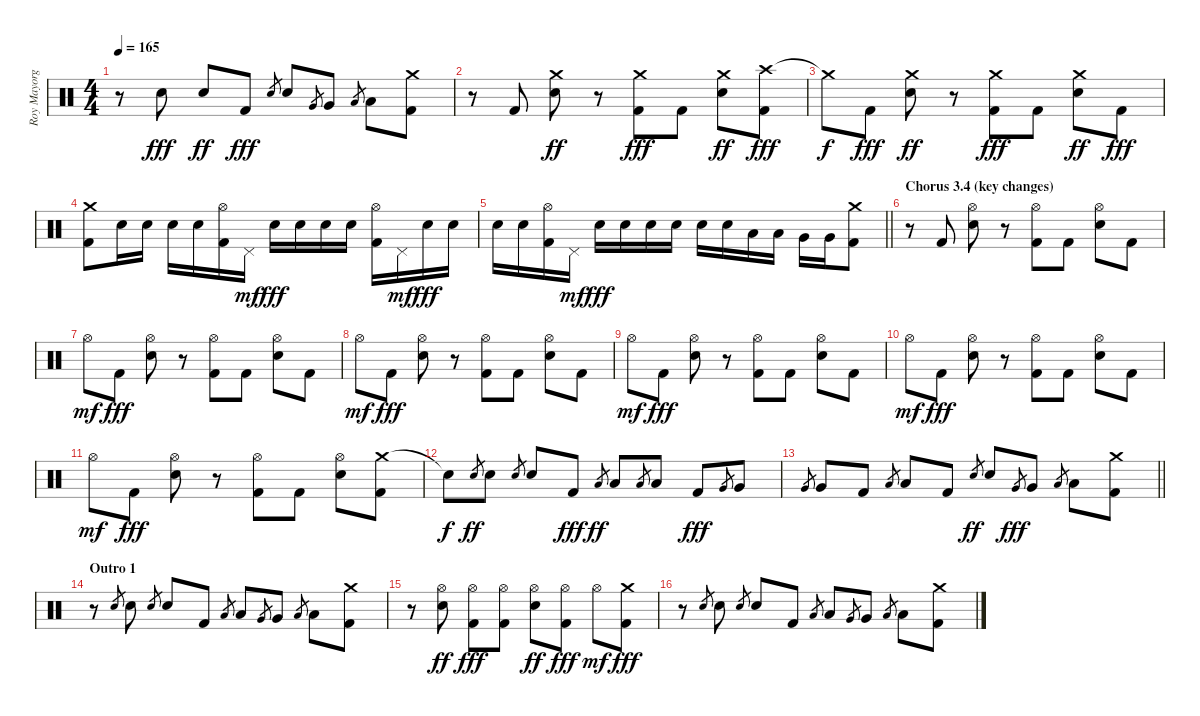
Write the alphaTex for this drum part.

\track ("Roy Mayorga" "Roy Mayorg") {instrument percussion}
\staff {score}
\articulation defaults
\ts (4 4)
\tempo 165
\clef neutral
\ks c
r.8{dy fff} "Electric Snare (hit)".8 "Electric Snare (hit)".8{dy ff} "Kick (hit) 2".8{dy fff} "Electric Snare (hit)".8{gr} "Electric Snare (hit)".8 "Very Low Tom (hit)".8{gr} "Very Low Tom (hit)".8 "Low Floor Tom (hit)".8{gr} "Low Floor Tom (hit)".8 ("Crash medium (hit)" "Kick (hit) 2").8 |
r.8 "Kick (hit) 2".8 ("Crash medium (hit)" "Electric Snare (hit)").8{dy ff} r.8 ("Crash medium (hit)" "Kick (hit) 2").8{dy fff} "Kick (hit) 2".8 ("Crash medium (hit)" "Electric Snare (hit)").8{dy ff} ("Crash high (hit)" "Kick (hit) 2").8{dy fff} |
"Crash medium (hit)"{t}.8{dy f} "Kick (hit) 2".8{dy fff} ("Crash medium (hit)" "Electric Snare (hit)").8{dy ff} r.8 ("Crash medium (hit)" "Kick (hit) 2").8{dy fff} "Kick (hit) 2".8 ("Crash medium (hit)" "Electric Snare (hit)").8{dy ff} "Kick (hit) 2".8{dy fff} |
("Crash medium (hit)" "Kick (hit) 2").8 "Electric Snare (hit)".16 "Electric Snare (hit)".16 "Electric Snare (hit)".16 "Electric Snare (hit)".16 ("Hi-Hat (open)" "Kick (hit) 2").16 "Pedal Hi-Hat (hit)".16{dy mf} "Electric Snare (hit)".16{dy fff} "Electric Snare (hit)".16 "Electric Snare (hit)".16 "Electric Snare (hit)".16 ("Hi-Hat (open)" "Kick (hit) 2").16 "Pedal Hi-Hat (hit)".16{dy mf} "Electric Snare (hit)".16{dy fff} "Electric Snare (hit)".16 |
\barLineRight lightlight "Electric Snare (hit)".16 "Electric Snare (hit)".16
("Hi-Hat (open)" "Kick (hit) 2").16 "Pedal Hi-Hat (hit)".16{dy mf} "Electric Snare (hit)".16{dy fff} "Electric Snare (hit)".16 "Electric Snare (hit)".16 "Electric Snare (hit)".16 "Electric Snare (hit)".16 "Electric Snare (hit)".16 "Low Tom (hit)".16 "Low Tom (hit)".16 "Very Low Tom (hit)".16 "Very Low Tom (hit)".16 ("Crash medium (hit)" "Kick (hit) 2").8 |
\section ("" "Chorus 3.4 (key changes)")
r.8 "Kick (hit) 2".8 ("Hi-Hat (open)" "Electric Snare (hit)").8 r.8 ("Hi-Hat (open)" "Kick (hit) 2").8 "Kick (hit) 2".8 ("Hi-Hat (open)" "Electric Snare (hit)").8 "Kick (hit) 2".8 |
"Hi-Hat (open)".8{dy mf} "Kick (hit) 2".8{dy fff} ("Hi-Hat (open)" "Electric Snare (hit)").8 r.8 ("Hi-Hat (open)" "Kick (hit) 2").8 "Kick (hit) 2".8 ("Hi-Hat (open)" "Electric Snare (hit)").8 "Kick (hit) 2".8 |
"Hi-Hat (open)".8{dy mf} "Kick (hit) 2".8{dy fff} ("Hi-Hat (open)" "Electric Snare (hit)").8 r.8 ("Hi-Hat (open)" "Kick (hit) 2").8 "Kick (hit) 2".8 ("Hi-Hat (open)" "Electric Snare (hit)").8 "Kick (hit) 2".8 |
"Hi-Hat (open)".8{dy mf} "Kick (hit) 2".8{dy fff} ("Hi-Hat (open)" "Electric Snare (hit)").8 r.8 ("Hi-Hat (open)" "Kick (hit) 2").8 "Kick (hit) 2".8 ("Hi-Hat (open)" "Electric Snare (hit)").8 "Kick (hit) 2".8 |
"Hi-Hat (open)".8{dy mf} "Kick (hit) 2".8{dy fff} ("Hi-Hat (open)" "Electric Snare (hit)").8 r.8 ("Hi-Hat (open)" "Kick (hit) 2").8 "Kick (hit) 2".8 ("Hi-Hat (open)" "Electric Snare (hit)").8 "Kick (hit) 2".8 |
"Hi-Hat (open)".8{dy mf} "Kick (hit) 2".8{dy fff} ("Hi-Hat (open)" "Electric Snare (hit)").8 r.8 ("Hi-Hat (open)" "Kick (hit) 2").8 "Kick (hit) 2".8 ("Hi-Hat (open)" "Electric Snare (hit)").8 ("Crash medium (hit)" "Kick (hit) 2").8 |
"Snare (hit)"{t}.8{dy f} "Electric Snare (hit)".8{gr dy ff} "Electric Snare (hit)".8 "Electric Snare (hit)".8{gr} "Electric Snare (hit)".8 "Kick (hit) 2".8{dy fff} "Low Tom (hit)".8{gr dy ff} "Low Tom (hit)".8 "Low Tom (hit)".8{gr} "Low Tom (hit)".8 "Kick (hit) 2".8{dy fff} "Very Low Tom (hit)".8{gr} "Very Low Tom (hit)".8 |
\barLineRight lightlight "Very Low Tom (hit)".8{gr} "Very Low Tom (hit)".8 "Kick (hit) 2".8 "Low Floor Tom (hit)".8{gr} "Low Floor Tom (hit)".8 "Kick (hit) 2".8 "Electric Snare (hit)".8{gr dy ff} "Electric Snare (hit)".8 "Very Low Tom (hit)".8{gr dy fff} "Very Low Tom (hit)".8 "Low Floor Tom (hit)".8{gr} "Low Floor Tom (hit)".8
("Crash medium (hit)" "Kick (hit) 2").8 |
\section ("" "Outro 1")
r.8 "Electric Snare (hit)".8{gr} "Electric Snare (hit)".8 "Electric Snare (hit)".8{gr} "Electric Snare (hit)".8 "Kick (hit) 2".8 "Low Tom (hit)".8{gr} "Low Tom (hit)".8 "Very Low Tom (hit)".8{gr} "Very Low Tom (hit)".8 "Low Floor Tom (hit)".8{gr} "Low Floor Tom (hit)".8 ("Crash medium (hit)" "Kick (hit) 2").8 |
r.8 ("Hi-Hat (open)" "Electric Snare (hit)").8{dy ff} ("Hi-Hat (open)" "Kick (hit) 2").8{dy fff} ("Hi-Hat (open)" "Kick (hit) 2").8 ("Hi-Hat (open)" "Electric Snare (hit)").8{dy ff} ("Hi-Hat (open)" "Kick (hit) 2").8{dy fff} "Hi-Hat (open)".8{dy mf} ("Crash medium (hit)" "Kick (hit) 2").8{dy fff} |
r.8 "Electric Snare (hit)".8{gr} "Electric Snare (hit)".8 "Electric Snare (hit)".8{gr} "Electric Snare (hit)".8 "Kick (hit) 2".8 "Low Tom (hit)".8{gr} "Low Tom (hit)".8 "Very Low Tom (hit)".8{gr} "Very Low Tom (hit)".8 "Low Floor Tom (hit)".8{gr} "Low Floor Tom (hit)".8 ("Crash medium (hit)" "Kick (hit) 2").8
